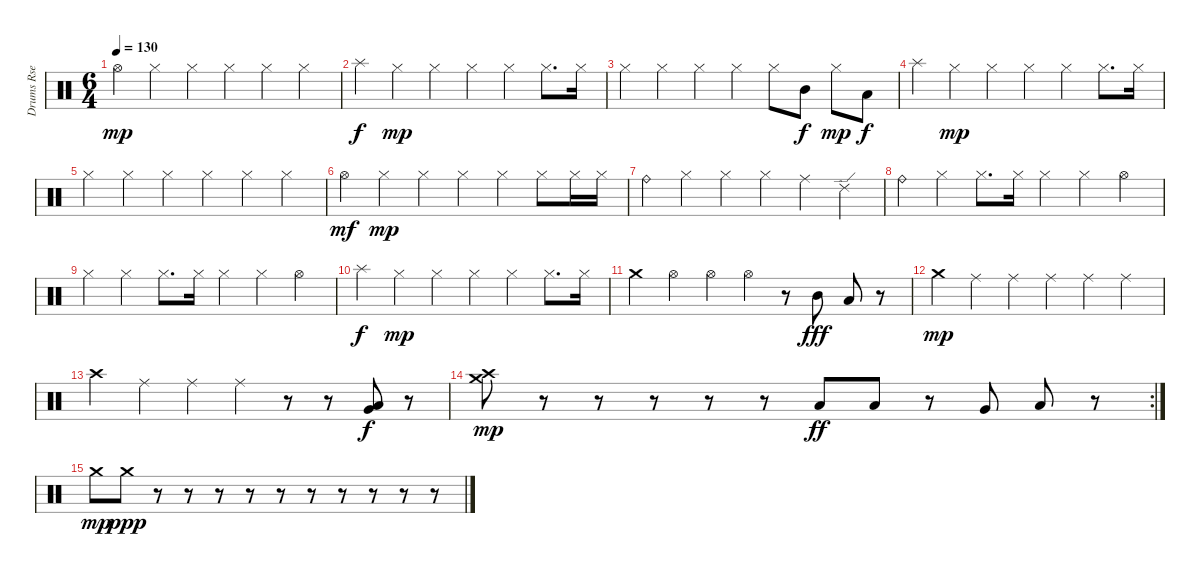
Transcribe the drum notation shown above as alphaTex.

\track ("Drums Rse" "Drums Rse") {instrument percussion}
\staff {score}
\articulation defaults
\ts (6 4)
\tempo 130
\clef neutral
\ks c "Hi-Hat (open)".4{dy mp} "Hi-Hat (closed)".4 "Hi-Hat (closed)".4 "Hi-Hat (closed)".4 "Hi-Hat (closed)".4 "Hi-Hat (closed)".4
|
"Splash (hit)".4{dy f} "Hi-Hat (closed)".4{dy mp} "Hi-Hat (closed)".4 "Hi-Hat (closed)".4 "Hi-Hat (closed)".4 "Hi-Hat (closed)".8{d} "Hi-Hat (closed)".16 |
"Hi-Hat (closed)".4 "Hi-Hat (closed)".4 "Hi-Hat (closed)".4 "Hi-Hat (closed)".4 "Hi-Hat (closed)".8 "Mid Tom (hit)".8{dy f} "Hi-Hat (closed)".8{dy mp} "Low Tom (hit)".8{dy f} |
"Splash (hit)".4 "Hi-Hat (closed)".4{dy mp} "Hi-Hat (closed)".4 "Hi-Hat (closed)".4 "Hi-Hat (closed)".4 "Hi-Hat (closed)".8{d} "Hi-Hat (closed)".16 |
"Hi-Hat (closed)".4 "Hi-Hat (closed)".4 "Hi-Hat (closed)".4 "Hi-Hat (closed)".4 "Hi-Hat (closed)".4 "Hi-Hat (closed)".4 |
"Hi-Hat (open)".4{dy mf} "Hi-Hat (closed)".4{dy mp} "Hi-Hat (closed)".4 "Hi-Hat (closed)".4 "Hi-Hat (closed)".4 "Hi-Hat (closed)".8 "Hi-Hat (closed)".16 "Hi-Hat (closed)".16 |
"Ride (bell)".4 "Hi-Hat (closed)".4 "Hi-Hat (closed)".4 "Hi-Hat (closed)".4 "Ride (middle)".4 "Ride (edge) 2".4 |
"Ride (bell)".4 "Hi-Hat (closed)".4 "Hi-Hat (closed)".8{d} "Hi-Hat (closed)".16 "Hi-Hat (closed)".4 "Hi-Hat (closed)".4 "Hi-Hat (open)".4 |
"Hi-Hat (closed)".4 "Hi-Hat (closed)".4 "Hi-Hat (closed)".8{d} "Hi-Hat (closed)".16 "Hi-Hat (closed)".4 "Hi-Hat (closed)".4 "Hi-Hat (open)".4 |
"Splash (hit)".4{dy f} "Hi-Hat (closed)".4{dy mp} "Hi-Hat (closed)".4 "Hi-Hat (closed)".4 "Hi-Hat (closed)".4 "Hi-Hat (closed)".8{d} "Hi-Hat (closed)".16 |
"Crash medium (hit)".4 "Hi-Hat (open)".4 "Hi-Hat (open)".4 "Hi-Hat (open)".4 r.8 "Mid Tom (hit)".8{dy fff} "Low Tom (hit)".8 r.8 |
"Crash medium (hit)".4{dy mp} "Ride (middle)".4 "Ride (middle)".4 "Ride (middle)".4 "Ride (middle)".4 "Ride (middle)".4 |
"Crash high (hit)".4 "Ride (middle)".4 "Ride (middle)".4 "Ride (middle)".4 r.8 r.8 ("Low Tom (hit)" "Very Low Tom (hit)").8{dy f} r.8 |
\rc 2
("Crash medium (hit)" "Crash high (hit)").8{dy mp} r.8 r.8 r.8 r.8 r.8 "Low Tom (hit)".8{dy ff} "Low Tom (hit)".8 r.8 "Very Low Tom (hit)".8 "Low Floor Tom (hit)".8 r.8 |
"Crash medium (hit)".8{dy mp} "Crash medium (hit)".8{dy ppp} r.8 r.8 r.8 r.8 r.8 r.8 r.8 r.8 r.8 r.8
